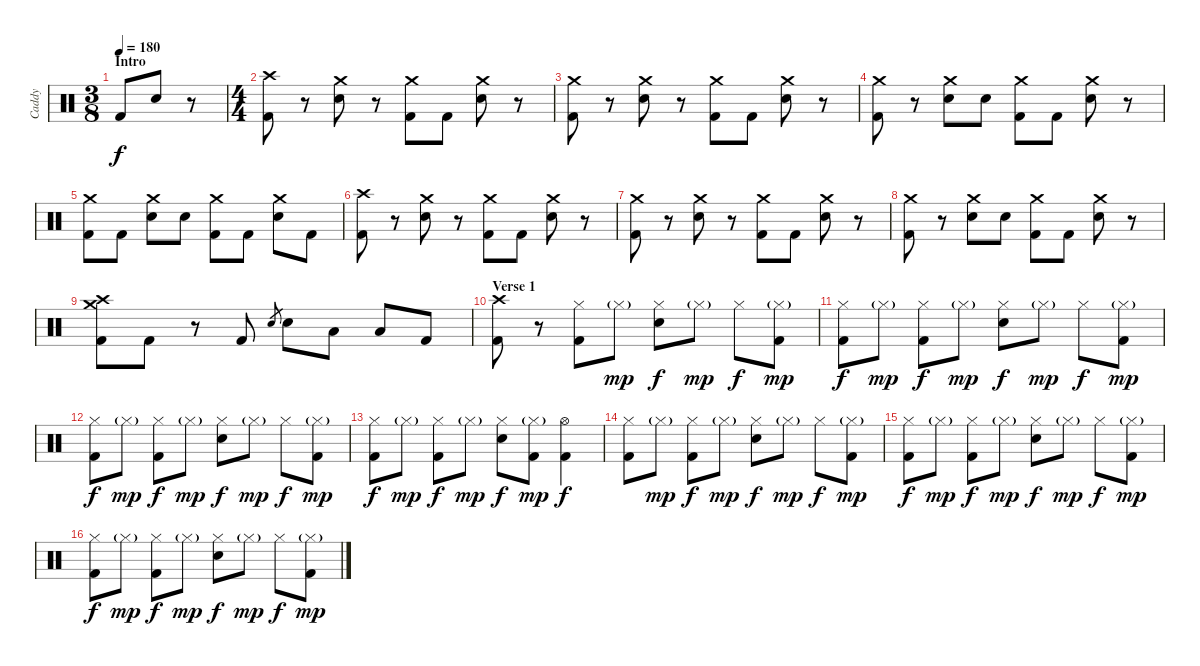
\track ("Caddy" "Caddy") {instrument percussion}
\staff {score}
\articulation defaults
\ts (3 8)
\section ("" "Intro")
\tempo 180
\clef neutral
\ks c "Kick (hit) 2".8{dy f} "Electric Snare (hit)".8
r.8 |
\ts (4 4)
("Crash high (hit)" "Kick (hit) 2").8 r.8 ("Crash medium (hit)" "Electric Snare (hit)").8 r.8 ("Crash medium (hit)" "Kick (hit) 2").8 "Kick (hit) 2".8 ("Crash medium (hit)" "Electric Snare (hit)").8 r.8 |
("Crash medium (hit)" "Kick (hit) 2").8 r.8 ("Crash medium (hit)" "Electric Snare (hit)").8 r.8 ("Crash medium (hit)" "Kick (hit) 2").8 "Kick (hit) 2".8 ("Crash medium (hit)" "Electric Snare (hit)").8 r.8 |
("Crash medium (hit)" "Kick (hit) 2").8 r.8 ("Crash medium (hit)" "Electric Snare (hit)").8 "Electric Snare (hit)".8 ("Crash medium (hit)" "Kick (hit) 2").8 "Kick (hit) 2".8 ("Crash medium (hit)" "Electric Snare (hit)").8 r.8 |
("Crash medium (hit)" "Kick (hit) 2").8 "Kick (hit) 2".8 ("Crash medium (hit)" "Electric Snare (hit)").8 "Electric Snare (hit)".8 ("Crash medium (hit)" "Kick (hit) 2").8 "Kick (hit) 2".8 ("Crash medium (hit)" "Electric Snare (hit)").8 "Kick (hit) 2".8 |
("Crash high (hit)" "Kick (hit) 2").8 r.8 ("Crash medium (hit)" "Electric Snare (hit)").8 r.8 ("Crash medium (hit)" "Kick (hit) 2").8 "Kick (hit) 2".8 ("Crash medium (hit)" "Electric Snare (hit)").8 r.8 |
("Crash medium (hit)" "Kick (hit) 2").8 r.8 ("Crash medium (hit)" "Electric Snare (hit)").8 r.8 ("Crash medium (hit)" "Kick (hit) 2").8 "Kick (hit) 2".8 ("Crash medium (hit)" "Electric Snare (hit)").8 r.8 |
("Crash medium (hit)" "Kick (hit) 2").8 r.8 ("Crash medium (hit)" "Electric Snare (hit)").8 "Electric Snare (hit)".8 ("Crash medium (hit)" "Kick (hit) 2").8 "Kick (hit) 2".8 ("Crash medium (hit)" "Electric Snare (hit)").8 r.8 |
("Crash medium (hit)" "Crash high (hit)" "Kick (hit) 2").8 "Kick (hit) 2".8 r.8 "Kick (hit) 2".8 "Electric Snare (hit)".8{gr} "Electric Snare (hit)".8 "Low Tom (hit)".8 "Low Floor Tom (hit)".8 "Kick (hit) 2".8 |
\section ("" "Verse 1")
("Crash high (hit)" "Kick (hit) 2").8 r.8 ("Hi-Hat (closed)" "Kick (hit) 2").8 "Hi-Hat (closed)"{g}.8{dy mp} ("Hi-Hat (closed)" "Electric Snare (hit)").8{dy f} "Hi-Hat (closed)"{g}.8{dy mp} "Hi-Hat (closed)".8{dy f} ("Hi-Hat (closed)"{g} "Kick (hit) 2").8{dy mp} |
("Hi-Hat (closed)" "Kick (hit) 2").8{dy f} "Hi-Hat (closed)"{g}.8{dy mp} ("Hi-Hat (closed)" "Kick (hit) 2").8{dy f} "Hi-Hat (closed)"{g}.8{dy mp} ("Hi-Hat (closed)" "Electric Snare (hit)").8{dy f} "Hi-Hat (closed)"{g}.8{dy mp} "Hi-Hat (closed)".8{dy f} ("Hi-Hat (closed)"{g} "Kick (hit) 2").8{dy mp} |
("Hi-Hat (closed)" "Kick (hit) 2").8{dy f} "Hi-Hat (closed)"{g}.8{dy mp} ("Hi-Hat (closed)" "Kick (hit) 2").8{dy f} "Hi-Hat (closed)"{g}.8{dy mp} ("Hi-Hat (closed)" "Electric Snare (hit)").8{dy f} "Hi-Hat (closed)"{g}.8{dy mp} "Hi-Hat (closed)".8{dy f} ("Hi-Hat (closed)"{g} "Kick (hit) 2").8{dy mp} |
("Hi-Hat (closed)" "Kick (hit) 2").8{dy f} "Hi-Hat (closed)"{g}.8{dy mp} ("Hi-Hat (closed)" "Kick (hit) 2").8{dy f} "Hi-Hat (closed)"{g}.8{dy mp} ("Hi-Hat (closed)" "Electric Snare (hit)").8{dy f} ("Hi-Hat (closed)"{g} "Kick (hit) 2").8{dy mp} ("Hi-Hat (open)" "Kick (hit) 2").4{dy f} |
("Hi-Hat (closed)" "Kick (hit) 2").8 "Hi-Hat (closed)"{g}.8{dy mp} ("Hi-Hat (closed)" "Kick (hit) 2").8{dy f} "Hi-Hat (closed)"{g}.8{dy mp} ("Hi-Hat (closed)" "Electric Snare (hit)").8{dy f} "Hi-Hat (closed)"{g}.8{dy mp} "Hi-Hat (closed)".8{dy f} ("Hi-Hat (closed)"{g} "Kick (hit) 2").8{dy mp} |
("Hi-Hat (closed)" "Kick (hit) 2").8{dy f} "Hi-Hat (closed)"{g}.8{dy mp} ("Hi-Hat (closed)" "Kick (hit) 2").8{dy f} "Hi-Hat (closed)"{g}.8{dy mp} ("Hi-Hat (closed)" "Electric Snare (hit)").8{dy f} "Hi-Hat (closed)"{g}.8{dy mp} "Hi-Hat (closed)".8{dy f} ("Hi-Hat (closed)"{g} "Kick (hit) 2").8{dy mp} |
("Hi-Hat (closed)" "Kick (hit) 2").8{dy f} "Hi-Hat (closed)"{g}.8{dy mp} ("Hi-Hat (closed)" "Kick (hit) 2").8{dy f} "Hi-Hat (closed)"{g}.8{dy mp} ("Hi-Hat (closed)" "Electric Snare (hit)").8{dy f} "Hi-Hat (closed)"{g}.8{dy mp} "Hi-Hat (closed)".8{dy f} ("Hi-Hat (closed)"{g} "Kick (hit) 2").8{dy mp}
